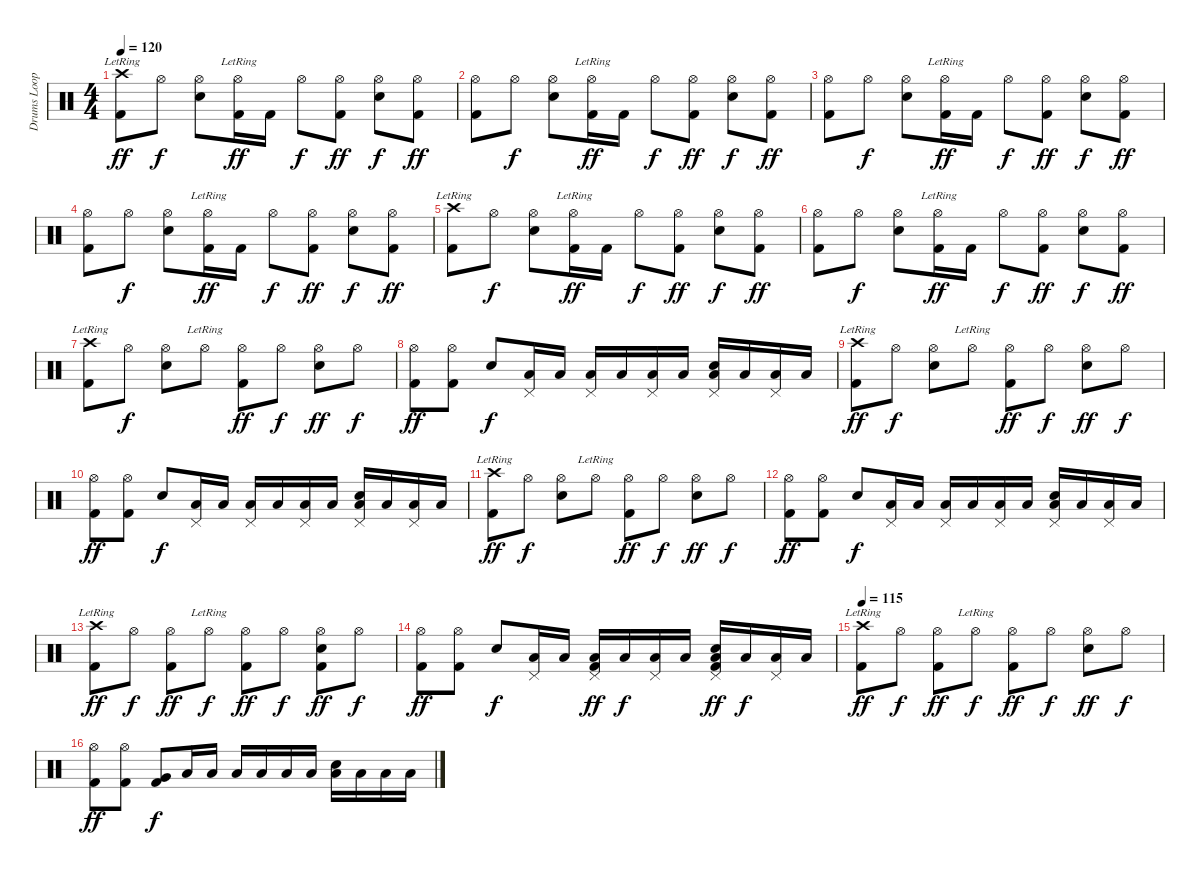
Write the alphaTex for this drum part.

\track ("Drums Looping" "Drums Loop") {instrument percussion}
\staff {score}
\articulation defaults
\ts (4 4)
\tempo 120
\clef neutral
\ks c
("Crash high (hit)"{lr} "Kick (hit) 2").8{dy ff} "Hi-Hat (open)".8{dy f} ("Hi-Hat (open)" "Snare (hit) 2").8 ("Hi-Hat (open)"{lr} "Kick (hit) 2").16{dy ff} "Kick (hit) 2".16 "Hi-Hat (open)".8{dy f} ("Hi-Hat (open)" "Kick (hit) 2").8{dy ff} ("Hi-Hat (open)" "Snare (hit) 2").8{dy f} ("Hi-Hat (open)" "Kick (hit) 2").8{dy ff} |
("Hi-Hat (open)" "Kick (hit) 2").8 "Hi-Hat (open)".8{dy f} ("Hi-Hat (open)" "Snare (hit) 2").8 ("Hi-Hat (open)"{lr} "Kick (hit) 2").16{dy ff} "Kick (hit) 2".16 "Hi-Hat (open)".8{dy f} ("Hi-Hat (open)" "Kick (hit) 2").8{dy ff} ("Hi-Hat (open)" "Snare (hit) 2").8{dy f} ("Hi-Hat (open)" "Kick (hit) 2").8{dy ff} |
("Hi-Hat (open)" "Kick (hit) 2").8 "Hi-Hat (open)".8{dy f} ("Hi-Hat (open)" "Snare (hit) 2").8 ("Hi-Hat (open)"{lr} "Kick (hit) 2").16{dy ff} "Kick (hit) 2".16 "Hi-Hat (open)".8{dy f} ("Hi-Hat (open)" "Kick (hit) 2").8{dy ff} ("Hi-Hat (open)" "Snare (hit) 2").8{dy f} ("Hi-Hat (open)" "Kick (hit) 2").8{dy ff} |
("Hi-Hat (open)" "Kick (hit) 2").8 "Hi-Hat (open)".8{dy f} ("Hi-Hat (open)" "Snare (hit) 2").8 ("Hi-Hat (open)"{lr} "Kick (hit) 2").16{dy ff} "Kick (hit) 2".16 "Hi-Hat (open)".8{dy f} ("Hi-Hat (open)" "Kick (hit) 2").8{dy ff} ("Hi-Hat (open)" "Snare (hit) 2").8{dy f} ("Hi-Hat (open)" "Kick (hit) 2").8{dy ff} |
("Crash high (hit)"{lr} "Kick (hit) 2").8 "Hi-Hat (open)".8{dy f} ("Hi-Hat (open)" "Snare (hit) 2").8 ("Hi-Hat (open)"{lr} "Kick (hit) 2").16{dy ff} "Kick (hit) 2".16 "Hi-Hat (open)".8{dy f} ("Hi-Hat (open)" "Kick (hit) 2").8{dy ff} ("Hi-Hat (open)" "Snare (hit) 2").8{dy f} ("Hi-Hat (open)" "Kick (hit) 2").8{dy ff} |
("Hi-Hat (open)" "Kick (hit) 2").8 "Hi-Hat (open)".8{dy f} ("Hi-Hat (open)" "Snare (hit) 2").8 ("Hi-Hat (open)"{lr} "Kick (hit) 2").16{dy ff} "Kick (hit) 2".16 "Hi-Hat (open)".8{dy f} ("Hi-Hat (open)" "Kick (hit) 2").8{dy ff} ("Hi-Hat (open)" "Snare (hit) 2").8{dy f} ("Hi-Hat (open)" "Kick (hit) 2").8{dy ff} |
("Crash high (hit)"{lr} "Kick (hit) 2").8 "Hi-Hat (open)".8{dy f} ("Hi-Hat (open)" "Snare (hit) 2").8 "Hi-Hat (open)"{lr}.8 ("Hi-Hat (open)" "Kick (hit) 2").8{dy ff} "Hi-Hat (open)".8{dy f} ("Hi-Hat (open)" "Electric Snare (hit)").8{dy ff} "Hi-Hat (open)".8{dy f} |
("Hi-Hat (open)" "Kick (hit) 2").8{dy ff} ("Hi-Hat (open)" "Kick (hit) 2").8 "Snare (hit) 2".8{dy f} ("Pedal Hi-Hat (hit)" "Low Tom (hit)").16 "Low Tom (hit)".16 ("Pedal Hi-Hat (hit)" "Low Tom (hit)").16 "Low Tom (hit)".16 ("Pedal Hi-Hat (hit)" "Low Tom (hit)").16 "Low Tom (hit)".16 ("Pedal Hi-Hat (hit)" "Electric Snare (hit)" "Low Tom (hit)").16 "Low Tom (hit)".16 ("Pedal Hi-Hat (hit)" "Low Tom (hit)").16 "Low Tom (hit)".16 |
("Crash high (hit)"{lr} "Kick (hit) 2").8{dy ff} "Hi-Hat (open)".8{dy f} ("Hi-Hat (open)" "Snare (hit) 2").8 "Hi-Hat (open)"{lr}.8 ("Hi-Hat (open)" "Kick (hit) 2").8{dy ff} "Hi-Hat (open)".8{dy f} ("Hi-Hat (open)" "Electric Snare (hit)").8{dy ff} "Hi-Hat (open)".8{dy f} |
("Hi-Hat (open)" "Kick (hit) 2").8{dy ff} ("Hi-Hat (open)" "Kick (hit) 2").8 "Snare (hit) 2".8{dy f} ("Pedal Hi-Hat (hit)" "Low Tom (hit)").16 "Low Tom (hit)".16 ("Pedal Hi-Hat (hit)" "Low Tom (hit)").16 "Low Tom (hit)".16 ("Pedal Hi-Hat (hit)" "Low Tom (hit)").16 "Low Tom (hit)".16 ("Pedal Hi-Hat (hit)" "Electric Snare (hit)" "Low Tom (hit)").16 "Low Tom (hit)".16 ("Pedal Hi-Hat (hit)" "Low Tom (hit)").16 "Low Tom (hit)".16 |
("Crash high (hit)"{lr} "Kick (hit) 2").8{dy ff} "Hi-Hat (open)".8{dy f} ("Hi-Hat (open)" "Snare (hit) 2").8 "Hi-Hat (open)"{lr}.8 ("Hi-Hat (open)" "Kick (hit) 2").8{dy ff} "Hi-Hat (open)".8{dy f} ("Hi-Hat (open)" "Electric Snare (hit)").8{dy ff} "Hi-Hat (open)".8{dy f} |
("Hi-Hat (open)" "Kick (hit) 2").8{dy ff} ("Hi-Hat (open)" "Kick (hit) 2").8 "Snare (hit) 2".8{dy f} ("Pedal Hi-Hat (hit)" "Low Tom (hit)").16 "Low Tom (hit)".16 ("Pedal Hi-Hat (hit)" "Low Tom (hit)").16 "Low Tom (hit)".16 ("Pedal Hi-Hat (hit)" "Low Tom (hit)").16 "Low Tom (hit)".16 ("Pedal Hi-Hat (hit)" "Electric Snare (hit)" "Low Tom (hit)").16 "Low Tom (hit)".16 ("Pedal Hi-Hat (hit)" "Low Tom (hit)").16 "Low Tom (hit)".16 |
("Crash high (hit)"{lr} "Kick (hit) 2").8{dy ff} "Hi-Hat (open)".8{dy f} ("Hi-Hat (open)" "Kick (hit) 2").8{dy ff} "Hi-Hat (open)"{lr}.8{dy f} ("Hi-Hat (open)" "Kick (hit) 2").8{dy ff} "Hi-Hat (open)".8{dy f} ("Hi-Hat (open)" "Electric Snare (hit)" "Kick (hit) 2").8{dy ff} "Hi-Hat (open)".8{dy f} |
("Hi-Hat (open)" "Kick (hit) 2").8{dy ff} ("Hi-Hat (open)" "Kick (hit) 2").8 "Snare (hit) 2".8{dy f} ("Pedal Hi-Hat (hit)" "Low Tom (hit)").16 "Low Tom (hit)".16 ("Pedal Hi-Hat (hit)" "Low Tom (hit)" "Kick (hit) 2").16{dy ff} "Low Tom (hit)".16{dy f} ("Pedal Hi-Hat (hit)" "Low Tom (hit)").16 "Low Tom (hit)".16 ("Pedal Hi-Hat (hit)" "Electric Snare (hit)" "Low Tom (hit)" "Kick (hit) 2").16{dy ff} "Low Tom (hit)".16{dy f} ("Pedal Hi-Hat (hit)" "Low Tom (hit)").16 "Low Tom (hit)".16 |
\tempo 115
("Crash high (hit)"{lr} "Kick (hit) 2").8{dy ff} "Hi-Hat (open)".8{dy f} ("Hi-Hat (open)" "Kick (hit) 2").8{dy ff} "Hi-Hat (open)"{lr}.8{dy f} ("Hi-Hat (open)" "Kick (hit) 2").8{dy ff} "Hi-Hat (open)".8{dy f} ("Hi-Hat (open)" "Electric Snare (hit)").8{dy ff} "Hi-Hat (open)".8{dy f} |
("Hi-Hat (open)" "Kick (hit) 2").8{dy ff} ("Hi-Hat (open)" "Kick (hit) 2").8 ("Very Low Tom (hit)" "Kick (hit) 2").8{dy f} "Low Tom (hit)".16 "Low Tom (hit)".16 "Low Tom (hit)".16 "Low Tom (hit)".16 "Low Tom (hit)".16 "Low Tom (hit)".16 ("Electric Snare (hit)" "Low Tom (hit)").16 "Low Tom (hit)".16 "Low Tom (hit)".16 "Low Tom (hit)".16
